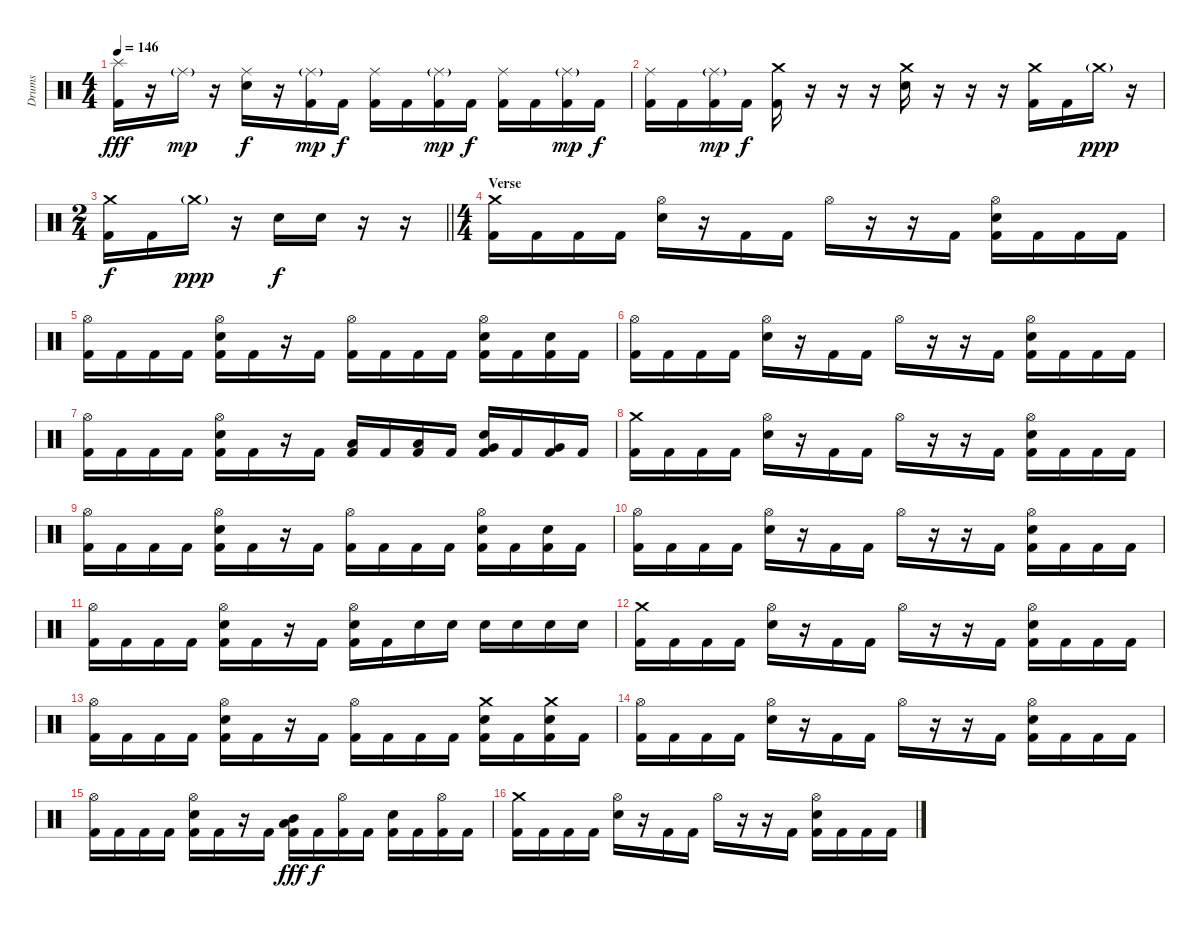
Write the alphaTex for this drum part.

\track ("Drums" "Drums") {instrument percussion}
\staff {score}
\articulation defaults
\ts (4 4)
\tempo 146
\clef neutral
\ks c
("Splash (hit)" "Kick (hit) 2").16{dy fff} r.16 "Ride (middle)"{g}.16{dy mp} r.16 ("Ride (middle)" "Electric Snare (hit)").16{dy f} r.16 ("Ride (middle)"{g} "Kick (hit) 2").16{dy mp} "Kick (hit) 2".16{dy f} ("Ride (middle)" "Kick (hit) 2").16 "Kick (hit) 2".16 ("Ride (middle)"{g} "Kick (hit) 2").16{dy mp} "Kick (hit) 2".16{dy f} ("Ride (middle)" "Kick (hit) 2").16 "Kick (hit) 2".16 ("Ride (middle)"{g} "Kick (hit) 2").16{dy mp} "Kick (hit) 2".16{dy f} |
("Ride (middle)" "Kick (hit) 2").16 "Kick (hit) 2".16 ("Ride (middle)"{g} "Kick (hit) 2").16{dy mp} "Kick (hit) 2".16{dy f} ("Crash medium (hit)" "Kick (hit) 2").16 r.16 r.16 r.16 ("Crash medium (hit)" "Electric Snare (hit)").16 r.16 r.16 r.16 ("Crash medium (hit)" "Kick (hit) 2").16 "Kick (hit) 2".16 "Crash medium (hit)"{g}.16{dy ppp} r.16 |
\ts (2 4)
\barLineRight lightlight
("Crash medium (hit)" "Kick (hit) 2").16{dy f} "Kick (hit) 2".16 "Crash medium (hit)"{g}.16{dy ppp} r.16 "Electric Snare (hit)".16{dy f} "Electric Snare (hit)".16 r.16 r.16 |
\ts (4 4)
\section ("" "Verse")
("Crash medium (hit)" "Kick (hit) 2").16 "Kick (hit) 2".16 "Kick (hit) 2".16 "Kick (hit) 2".16 ("Hi-Hat (open)" "Electric Snare (hit)").16 r.16 "Kick (hit) 2".16 "Kick (hit) 2".16 "Hi-Hat (open)".16 r.16 r.16 "Kick (hit) 2".16 ("Hi-Hat (open)" "Electric Snare (hit)" "Kick (hit) 2").16 "Kick (hit) 2".16 "Kick (hit) 2".16 "Kick (hit) 2".16 |
("Hi-Hat (open)" "Kick (hit) 2").16 "Kick (hit) 2".16 "Kick (hit) 2".16 "Kick (hit) 2".16 ("Hi-Hat (open)" "Electric Snare (hit)" "Kick (hit) 2").16 "Kick (hit) 2".16 r.16 "Kick (hit) 2".16 ("Hi-Hat (open)" "Kick (hit) 2").16 "Kick (hit) 2".16 "Kick (hit) 2".16 "Kick (hit) 2".16 ("Hi-Hat (open)" "Electric Snare (hit)" "Kick (hit) 2").16 "Kick (hit) 2".16 ("Electric Snare (hit)" "Kick (hit) 2").16 "Kick (hit) 2".16 |
("Hi-Hat (open)" "Kick (hit) 2").16 "Kick (hit) 2".16 "Kick (hit) 2".16 "Kick (hit) 2".16 ("Hi-Hat (open)" "Electric Snare (hit)").16 r.16 "Kick (hit) 2".16 "Kick (hit) 2".16 "Hi-Hat (open)".16 r.16 r.16 "Kick (hit) 2".16 ("Hi-Hat (open)" "Electric Snare (hit)" "Kick (hit) 2").16 "Kick (hit) 2".16 "Kick (hit) 2".16 "Kick (hit) 2".16 |
("Hi-Hat (open)" "Kick (hit) 2").16 "Kick (hit) 2".16 "Kick (hit) 2".16 "Kick (hit) 2".16 ("Hi-Hat (open)" "Electric Snare (hit)" "Kick (hit) 2").16 "Kick (hit) 2".16 r.16 "Kick (hit) 2".16 ("Low Tom (hit)" "Kick (hit) 2").16 "Kick (hit) 2".16 ("Low Tom (hit)" "Kick (hit) 2").16 "Kick (hit) 2".16 ("Very Low Tom (hit)" "Electric Snare (hit)" "Kick (hit) 2").16 "Kick (hit) 2".16 ("Very Low Tom (hit)" "Kick (hit) 2").16 "Kick (hit) 2".16 |
("Crash medium (hit)" "Kick (hit) 2").16 "Kick (hit) 2".16 "Kick (hit) 2".16 "Kick (hit) 2".16 ("Hi-Hat (open)" "Electric Snare (hit)").16 r.16 "Kick (hit) 2".16 "Kick (hit) 2".16 "Hi-Hat (open)".16 r.16 r.16 "Kick (hit) 2".16 ("Hi-Hat (open)" "Electric Snare (hit)" "Kick (hit) 2").16 "Kick (hit) 2".16 "Kick (hit) 2".16 "Kick (hit) 2".16 |
("Hi-Hat (open)" "Kick (hit) 2").16 "Kick (hit) 2".16 "Kick (hit) 2".16 "Kick (hit) 2".16 ("Hi-Hat (open)" "Electric Snare (hit)" "Kick (hit) 2").16 "Kick (hit) 2".16 r.16 "Kick (hit) 2".16 ("Hi-Hat (open)" "Kick (hit) 2").16 "Kick (hit) 2".16 "Kick (hit) 2".16 "Kick (hit) 2".16 ("Hi-Hat (open)" "Electric Snare (hit)" "Kick (hit) 2").16 "Kick (hit) 2".16 ("Electric Snare (hit)" "Kick (hit) 2").16 "Kick (hit) 2".16 |
("Hi-Hat (open)" "Kick (hit) 2").16 "Kick (hit) 2".16 "Kick (hit) 2".16 "Kick (hit) 2".16 ("Hi-Hat (open)" "Electric Snare (hit)").16 r.16 "Kick (hit) 2".16 "Kick (hit) 2".16 "Hi-Hat (open)".16 r.16 r.16 "Kick (hit) 2".16 ("Hi-Hat (open)" "Electric Snare (hit)" "Kick (hit) 2").16 "Kick (hit) 2".16 "Kick (hit) 2".16 "Kick (hit) 2".16 |
("Hi-Hat (open)" "Kick (hit) 2").16 "Kick (hit) 2".16 "Kick (hit) 2".16 "Kick (hit) 2".16 ("Hi-Hat (open)" "Electric Snare (hit)" "Kick (hit) 2").16 "Kick (hit) 2".16 r.16 "Kick (hit) 2".16 ("Hi-Hat (open)" "Electric Snare (hit)" "Kick (hit) 2").16 "Kick (hit) 2".16 "Electric Snare (hit)".16 "Electric Snare (hit)".16 "Electric Snare (hit)".16 "Electric Snare (hit)".16 "Electric Snare (hit)".16 "Electric Snare (hit)".16 |
("Crash medium (hit)" "Kick (hit) 2").16 "Kick (hit) 2".16 "Kick (hit) 2".16 "Kick (hit) 2".16 ("Hi-Hat (open)" "Electric Snare (hit)").16 r.16 "Kick (hit) 2".16 "Kick (hit) 2".16 "Hi-Hat (open)".16 r.16 r.16 "Kick (hit) 2".16 ("Hi-Hat (open)" "Electric Snare (hit)" "Kick (hit) 2").16 "Kick (hit) 2".16 "Kick (hit) 2".16 "Kick (hit) 2".16 |
("Hi-Hat (open)" "Kick (hit) 2").16 "Kick (hit) 2".16 "Kick (hit) 2".16 "Kick (hit) 2".16 ("Hi-Hat (open)" "Electric Snare (hit)" "Kick (hit) 2").16 "Kick (hit) 2".16 r.16 "Kick (hit) 2".16 ("Hi-Hat (open)" "Kick (hit) 2").16 "Kick (hit) 2".16 "Kick (hit) 2".16 "Kick (hit) 2".16 ("Crash medium (hit)" "Electric Snare (hit)" "Kick (hit) 2").16 "Kick (hit) 2".16 ("Crash medium (hit)" "Electric Snare (hit)" "Kick (hit) 2").16 "Kick (hit) 2".16 |
("Hi-Hat (open)" "Kick (hit) 2").16 "Kick (hit) 2".16 "Kick (hit) 2".16 "Kick (hit) 2".16 ("Hi-Hat (open)" "Electric Snare (hit)").16 r.16 "Kick (hit) 2".16 "Kick (hit) 2".16 "Hi-Hat (open)".16 r.16 r.16 "Kick (hit) 2".16 ("Hi-Hat (open)" "Electric Snare (hit)" "Kick (hit) 2").16 "Kick (hit) 2".16 "Kick (hit) 2".16 "Kick (hit) 2".16 |
("Hi-Hat (open)" "Kick (hit) 2").16 "Kick (hit) 2".16 "Kick (hit) 2".16 "Kick (hit) 2".16 ("Hi-Hat (open)" "Electric Snare (hit)" "Kick (hit) 2").16 "Kick (hit) 2".16 r.16 "Kick (hit) 2".16 ("Mid Tom (hit)" "Low Tom (hit)" "Kick (hit) 2").16{dy fff} "Kick (hit) 2".16{dy f} ("Hi-Hat (open)" "Kick (hit) 2").16 "Kick (hit) 2".16 ("Electric Snare (hit)" "Kick (hit) 2").16 "Kick (hit) 2".16 ("Hi-Hat (open)" "Kick (hit) 2").16 "Kick (hit) 2".16 |
("Crash medium (hit)" "Kick (hit) 2").16 "Kick (hit) 2".16 "Kick (hit) 2".16 "Kick (hit) 2".16 ("Hi-Hat (open)" "Electric Snare (hit)").16 r.16 "Kick (hit) 2".16 "Kick (hit) 2".16 "Hi-Hat (open)".16 r.16 r.16 "Kick (hit) 2".16 ("Hi-Hat (open)" "Electric Snare (hit)" "Kick (hit) 2").16 "Kick (hit) 2".16 "Kick (hit) 2".16 "Kick (hit) 2".16
